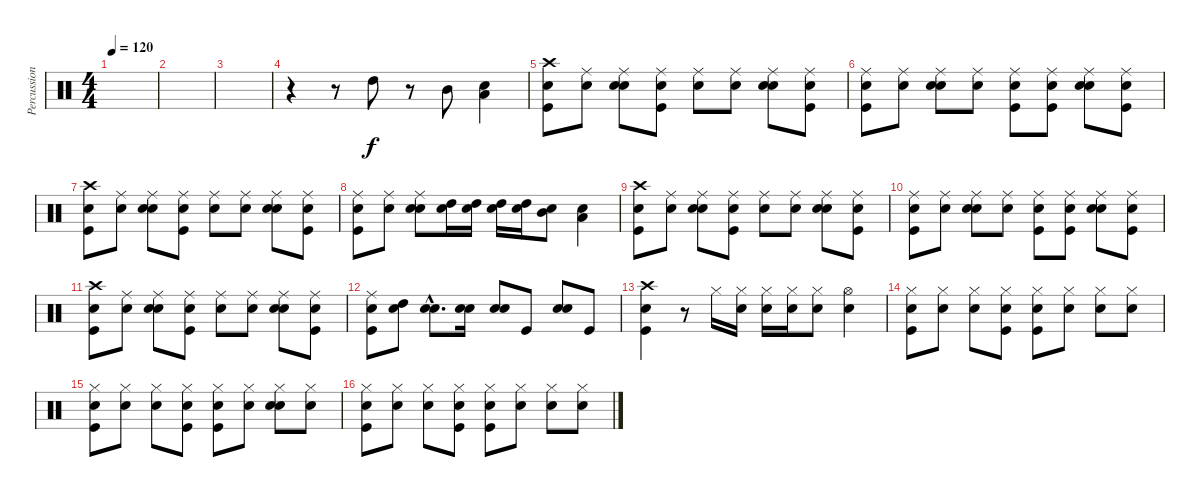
\track ("Percussion" "Percussion") {instrument percussion}
\staff {score}
\articulation defaults
\ts (4 4)
\tempo 120
\clef neutral
\ks c
|
|
|
r.4 r.8 "High Tom (hit)".8 r.8 "Mid Tom (hit)".8 ("Snare (hit)" "Low Tom (hit)").4 |
("Snare (hit)" "Kick (hit)" "Crash high (hit)").8 ("Snare (hit)" "Ride (middle)").8 ("Snare (hit)" "Electric Snare (hit)" "Ride (middle)").8 ("Snare (hit)" "Kick (hit)" "Ride (middle)").8 ("Snare (hit)" "Ride (middle)").8 ("Snare (hit)" "Ride (middle)").8 ("Snare (hit)" "Electric Snare (hit)" "Ride (middle)").8 ("Snare (hit)" "Kick (hit)" "Ride (middle)").8 |
("Snare (hit)" "Kick (hit)" "Ride (middle)").8 ("Snare (hit)" "Ride (middle)").8 ("Snare (hit)" "Ride (middle)" "Electric Snare (hit)").8 ("Snare (hit)" "Ride (middle)").8 ("Snare (hit)" "Kick (hit)" "Ride (middle)").8 ("Snare (hit)" "Kick (hit)" "Ride (middle)").8 ("Snare (hit)" "Electric Snare (hit)" "Ride (middle)").8 ("Snare (hit)" "Kick (hit)" "Ride (middle)").8 |
("Snare (hit)" "Kick (hit)" "Crash high (hit)").8 ("Snare (hit)" "Ride (middle)").8 ("Snare (hit)" "Electric Snare (hit)" "Ride (middle)").8 ("Snare (hit)" "Kick (hit)" "Ride (middle)").8 ("Snare (hit)" "Ride (middle)").8 ("Snare (hit)" "Ride (middle)").8 ("Snare (hit)" "Electric Snare (hit)" "Ride (middle)").8 ("Snare (hit)" "Kick (hit)" "Ride (middle)").8 |
("Snare (hit)" "Kick (hit)" "Ride (middle)").8 ("Snare (hit)" "Ride (middle)").8 ("Snare (hit)" "Electric Snare (hit)" "Ride (middle)").8 ("Snare (hit)" "High Tom (hit)").16 ("Snare (hit)" "High Tom (hit)").16 ("Snare (hit)" "High Tom (hit)").16 ("Snare (hit)" "High Tom (hit)").16 ("Snare (hit)" "Mid Tom (hit)").8 ("Snare (hit)" "Low Tom (hit)").4 |
("Snare (hit)" "Kick (hit)" "Crash high (hit)").8 ("Snare (hit)" "Ride (middle)").8 ("Snare (hit)" "Electric Snare (hit)" "Ride (middle)").8 ("Snare (hit)" "Kick (hit)" "Ride (middle)").8 ("Snare (hit)" "Ride (middle)").8 ("Snare (hit)" "Ride (middle)").8 ("Snare (hit)" "Electric Snare (hit)" "Ride (middle)").8 ("Snare (hit)" "Kick (hit)" "Ride (middle)").8 |
("Snare (hit)" "Kick (hit)" "Ride (middle)").8 ("Snare (hit)" "Ride (middle)").8 ("Snare (hit)" "Electric Snare (hit)" "Ride (middle)").8 ("Snare (hit)" "Ride (middle)").8 ("Snare (hit)" "Kick (hit)" "Ride (middle)").8 ("Snare (hit)" "Kick (hit)" "Ride (middle)").8 ("Snare (hit)" "Electric Snare (hit)" "Ride (middle)").8 ("Snare (hit)" "Kick (hit)" "Ride (middle)").8 |
("Snare (hit)" "Kick (hit)" "Crash high (hit)").8 ("Snare (hit)" "Ride (middle)").8 ("Snare (hit)" "Electric Snare (hit)" "Ride (middle)").8 ("Snare (hit)" "Kick (hit)" "Ride (middle)").8 ("Snare (hit)" "Ride (middle)").8 ("Snare (hit)" "Ride (middle)").8 ("Snare (hit)" "Electric Snare (hit)" "Ride (middle)").8 ("Snare (hit)" "Kick (hit)" "Ride (middle)").8 |
("Snare (hit)" "Kick (hit)" "Ride (middle)").8 ("Snare (hit)" "High Tom (hit)").8 ("Snare (hit)"{hac} "Electric Snare (hit)"{hac}).8{d} ("Snare (hit)" "Electric Snare (hit)").16 ("Snare (hit)" "Electric Snare (hit)").8 "Kick (hit)".8 ("Snare (hit)" "Electric Snare (hit)").8 "Kick (hit)".8 |
("Snare (hit)" "Kick (hit)" "Crash high (hit)").4 r.8 "Hi-Hat (closed)".16 ("Snare (hit)" "Hi-Hat (closed)").16 ("Snare (hit)" "Hi-Hat (closed)").16 ("Snare (hit)" "Hi-Hat (closed)").16 ("Snare (hit)" "Hi-Hat (closed)").8 ("Snare (hit)" "Hi-Hat (open)").4 |
("Snare (hit)" "Kick (hit)" "Hi-Hat (closed)").8 ("Snare (hit)" "Hi-Hat (closed)").8 ("Snare (hit)" "Hi-Hat (closed)").8 ("Snare (hit)" "Kick (hit)" "Hi-Hat (closed)").8 ("Snare (hit)" "Kick (hit)" "Hi-Hat (closed)").8 ("Snare (hit)" "Hi-Hat (closed)").8 ("Snare (hit)" "Hi-Hat (closed)").8 ("Snare (hit)" "Hi-Hat (closed)").8 |
("Snare (hit)" "Kick (hit)" "Hi-Hat (closed)").8 ("Snare (hit)" "Hi-Hat (closed)").8 ("Snare (hit)" "Hi-Hat (closed)").8 ("Snare (hit)" "Kick (hit)" "Hi-Hat (closed)").8 ("Snare (hit)" "Kick (hit)" "Hi-Hat (closed)").8 ("Snare (hit)" "Hi-Hat (closed)").8 ("Snare (hit)" "Electric Snare (hit)" "Hi-Hat (closed)").8 ("Snare (hit)" "Hi-Hat (closed)").8 |
("Snare (hit)" "Kick (hit)" "Hi-Hat (closed)").8 ("Snare (hit)" "Hi-Hat (closed)").8 ("Snare (hit)" "Hi-Hat (closed)").8 ("Snare (hit)" "Kick (hit)" "Hi-Hat (closed)").8 ("Snare (hit)" "Kick (hit)" "Hi-Hat (closed)").8 ("Snare (hit)" "Hi-Hat (closed)").8 ("Snare (hit)" "Hi-Hat (closed)").8 ("Snare (hit)" "Hi-Hat (closed)").8
